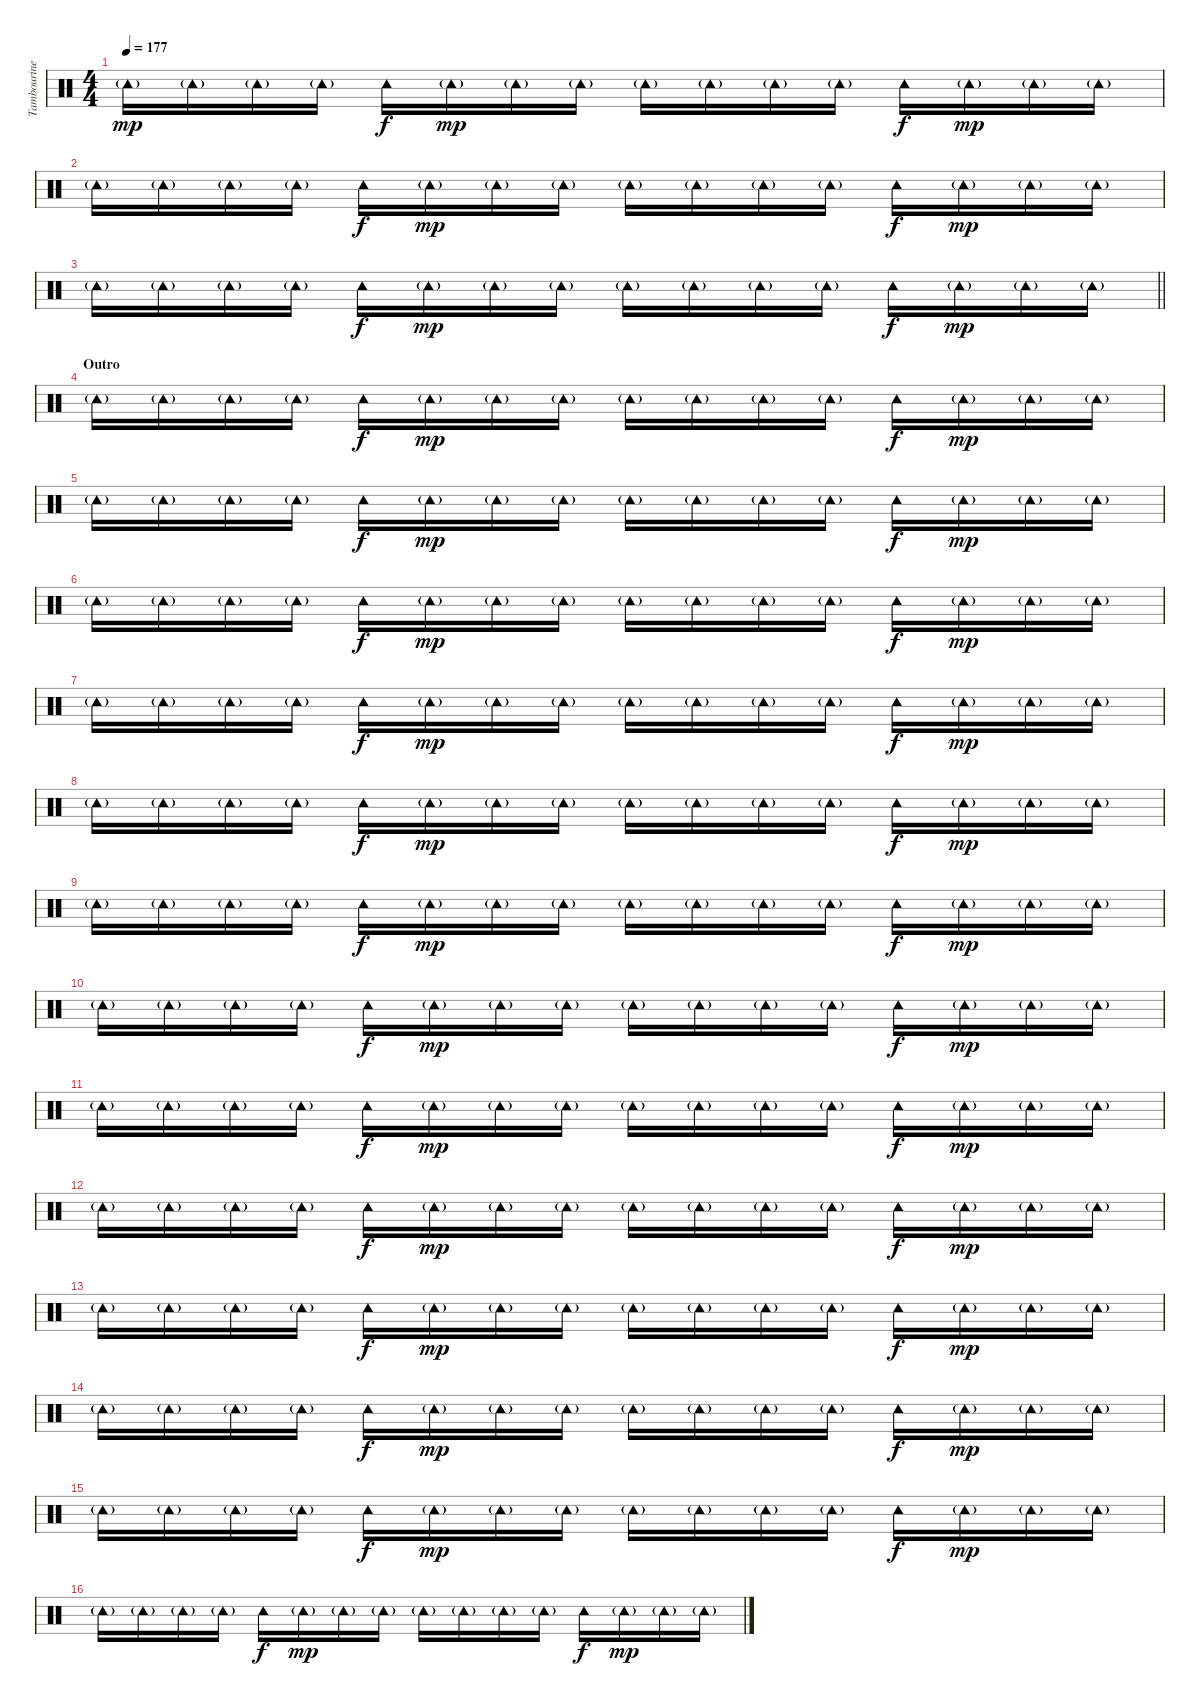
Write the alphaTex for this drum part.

\track ("Tambourine" "Tambourine") {instrument percussion}
\staff {score}
\articulation defaults
\ts (4 4)
\tempo 177
\clef neutral
\ks c "Tambourine (hit)"{g}.16{dy mp} "Tambourine (hit)"{g}.16 "Tambourine (hit)"{g}.16 "Tambourine (hit)"{g}.16 "Tambourine (hit)".16{dy f} "Tambourine (hit)"{g}.16{dy mp} "Tambourine (hit)"{g}.16 "Tambourine (hit)"{g}.16 "Tambourine (hit)"{g}.16 "Tambourine (hit)"{g}.16 "Tambourine (hit)"{g}.16 "Tambourine (hit)"{g}.16 "Tambourine (hit)".16{dy f} "Tambourine (hit)"{g}.16{dy mp} "Tambourine (hit)"{g}.16 "Tambourine (hit)"{g}.16
|
"Tambourine (hit)"{g}.16 "Tambourine (hit)"{g}.16 "Tambourine (hit)"{g}.16 "Tambourine (hit)"{g}.16 "Tambourine (hit)".16{dy f} "Tambourine (hit)"{g}.16{dy mp} "Tambourine (hit)"{g}.16 "Tambourine (hit)"{g}.16 "Tambourine (hit)"{g}.16 "Tambourine (hit)"{g}.16 "Tambourine (hit)"{g}.16 "Tambourine (hit)"{g}.16 "Tambourine (hit)".16{dy f} "Tambourine (hit)"{g}.16{dy mp} "Tambourine (hit)"{g}.16 "Tambourine (hit)"{g}.16 |
\barLineRight lightlight "Tambourine (hit)"{g}.16 "Tambourine (hit)"{g}.16 "Tambourine (hit)"{g}.16 "Tambourine (hit)"{g}.16 "Tambourine (hit)".16{dy f} "Tambourine (hit)"{g}.16{dy mp} "Tambourine (hit)"{g}.16 "Tambourine (hit)"{g}.16 "Tambourine (hit)"{g}.16 "Tambourine (hit)"{g}.16 "Tambourine (hit)"{g}.16 "Tambourine (hit)"{g}.16 "Tambourine (hit)".16{dy f} "Tambourine (hit)"{g}.16{dy mp} "Tambourine (hit)"{g}.16 "Tambourine (hit)"{g}.16
|
\section ("" "Outro")
"Tambourine (hit)"{g}.16 "Tambourine (hit)"{g}.16 "Tambourine (hit)"{g}.16 "Tambourine (hit)"{g}.16 "Tambourine (hit)".16{dy f} "Tambourine (hit)"{g}.16{dy mp} "Tambourine (hit)"{g}.16 "Tambourine (hit)"{g}.16 "Tambourine (hit)"{g}.16 "Tambourine (hit)"{g}.16 "Tambourine (hit)"{g}.16 "Tambourine (hit)"{g}.16 "Tambourine (hit)".16{dy f} "Tambourine (hit)"{g}.16{dy mp} "Tambourine (hit)"{g}.16 "Tambourine (hit)"{g}.16 |
"Tambourine (hit)"{g}.16 "Tambourine (hit)"{g}.16 "Tambourine (hit)"{g}.16 "Tambourine (hit)"{g}.16 "Tambourine (hit)".16{dy f} "Tambourine (hit)"{g}.16{dy mp} "Tambourine (hit)"{g}.16 "Tambourine (hit)"{g}.16 "Tambourine (hit)"{g}.16 "Tambourine (hit)"{g}.16 "Tambourine (hit)"{g}.16 "Tambourine (hit)"{g}.16 "Tambourine (hit)".16{dy f} "Tambourine (hit)"{g}.16{dy mp} "Tambourine (hit)"{g}.16 "Tambourine (hit)"{g}.16 |
"Tambourine (hit)"{g}.16 "Tambourine (hit)"{g}.16 "Tambourine (hit)"{g}.16 "Tambourine (hit)"{g}.16 "Tambourine (hit)".16{dy f} "Tambourine (hit)"{g}.16{dy mp} "Tambourine (hit)"{g}.16 "Tambourine (hit)"{g}.16 "Tambourine (hit)"{g}.16 "Tambourine (hit)"{g}.16 "Tambourine (hit)"{g}.16 "Tambourine (hit)"{g}.16 "Tambourine (hit)".16{dy f} "Tambourine (hit)"{g}.16{dy mp} "Tambourine (hit)"{g}.16 "Tambourine (hit)"{g}.16 |
"Tambourine (hit)"{g}.16 "Tambourine (hit)"{g}.16 "Tambourine (hit)"{g}.16 "Tambourine (hit)"{g}.16 "Tambourine (hit)".16{dy f} "Tambourine (hit)"{g}.16{dy mp} "Tambourine (hit)"{g}.16 "Tambourine (hit)"{g}.16 "Tambourine (hit)"{g}.16 "Tambourine (hit)"{g}.16 "Tambourine (hit)"{g}.16 "Tambourine (hit)"{g}.16 "Tambourine (hit)".16{dy f} "Tambourine (hit)"{g}.16{dy mp} "Tambourine (hit)"{g}.16 "Tambourine (hit)"{g}.16 |
"Tambourine (hit)"{g}.16 "Tambourine (hit)"{g}.16 "Tambourine (hit)"{g}.16 "Tambourine (hit)"{g}.16 "Tambourine (hit)".16{dy f} "Tambourine (hit)"{g}.16{dy mp} "Tambourine (hit)"{g}.16 "Tambourine (hit)"{g}.16 "Tambourine (hit)"{g}.16 "Tambourine (hit)"{g}.16 "Tambourine (hit)"{g}.16 "Tambourine (hit)"{g}.16 "Tambourine (hit)".16{dy f} "Tambourine (hit)"{g}.16{dy mp} "Tambourine (hit)"{g}.16 "Tambourine (hit)"{g}.16 |
"Tambourine (hit)"{g}.16 "Tambourine (hit)"{g}.16 "Tambourine (hit)"{g}.16 "Tambourine (hit)"{g}.16 "Tambourine (hit)".16{dy f} "Tambourine (hit)"{g}.16{dy mp} "Tambourine (hit)"{g}.16 "Tambourine (hit)"{g}.16 "Tambourine (hit)"{g}.16 "Tambourine (hit)"{g}.16 "Tambourine (hit)"{g}.16 "Tambourine (hit)"{g}.16 "Tambourine (hit)".16{dy f} "Tambourine (hit)"{g}.16{dy mp} "Tambourine (hit)"{g}.16 "Tambourine (hit)"{g}.16 |
"Tambourine (hit)"{g}.16 "Tambourine (hit)"{g}.16 "Tambourine (hit)"{g}.16 "Tambourine (hit)"{g}.16 "Tambourine (hit)".16{dy f} "Tambourine (hit)"{g}.16{dy mp} "Tambourine (hit)"{g}.16 "Tambourine (hit)"{g}.16 "Tambourine (hit)"{g}.16 "Tambourine (hit)"{g}.16 "Tambourine (hit)"{g}.16 "Tambourine (hit)"{g}.16 "Tambourine (hit)".16{dy f} "Tambourine (hit)"{g}.16{dy mp} "Tambourine (hit)"{g}.16 "Tambourine (hit)"{g}.16 |
"Tambourine (hit)"{g}.16 "Tambourine (hit)"{g}.16 "Tambourine (hit)"{g}.16 "Tambourine (hit)"{g}.16 "Tambourine (hit)".16{dy f} "Tambourine (hit)"{g}.16{dy mp} "Tambourine (hit)"{g}.16 "Tambourine (hit)"{g}.16 "Tambourine (hit)"{g}.16 "Tambourine (hit)"{g}.16 "Tambourine (hit)"{g}.16 "Tambourine (hit)"{g}.16 "Tambourine (hit)".16{dy f} "Tambourine (hit)"{g}.16{dy mp} "Tambourine (hit)"{g}.16 "Tambourine (hit)"{g}.16 |
"Tambourine (hit)"{g}.16 "Tambourine (hit)"{g}.16 "Tambourine (hit)"{g}.16 "Tambourine (hit)"{g}.16 "Tambourine (hit)".16{dy f} "Tambourine (hit)"{g}.16{dy mp} "Tambourine (hit)"{g}.16 "Tambourine (hit)"{g}.16 "Tambourine (hit)"{g}.16 "Tambourine (hit)"{g}.16 "Tambourine (hit)"{g}.16 "Tambourine (hit)"{g}.16 "Tambourine (hit)".16{dy f} "Tambourine (hit)"{g}.16{dy mp} "Tambourine (hit)"{g}.16 "Tambourine (hit)"{g}.16 |
"Tambourine (hit)"{g}.16 "Tambourine (hit)"{g}.16 "Tambourine (hit)"{g}.16 "Tambourine (hit)"{g}.16 "Tambourine (hit)".16{dy f} "Tambourine (hit)"{g}.16{dy mp} "Tambourine (hit)"{g}.16 "Tambourine (hit)"{g}.16 "Tambourine (hit)"{g}.16 "Tambourine (hit)"{g}.16 "Tambourine (hit)"{g}.16 "Tambourine (hit)"{g}.16 "Tambourine (hit)".16{dy f} "Tambourine (hit)"{g}.16{dy mp} "Tambourine (hit)"{g}.16 "Tambourine (hit)"{g}.16 |
"Tambourine (hit)"{g}.16 "Tambourine (hit)"{g}.16 "Tambourine (hit)"{g}.16 "Tambourine (hit)"{g}.16 "Tambourine (hit)".16{dy f} "Tambourine (hit)"{g}.16{dy mp} "Tambourine (hit)"{g}.16 "Tambourine (hit)"{g}.16 "Tambourine (hit)"{g}.16 "Tambourine (hit)"{g}.16 "Tambourine (hit)"{g}.16 "Tambourine (hit)"{g}.16 "Tambourine (hit)".16{dy f} "Tambourine (hit)"{g}.16{dy mp} "Tambourine (hit)"{g}.16 "Tambourine (hit)"{g}.16 |
"Tambourine (hit)"{g}.16 "Tambourine (hit)"{g}.16 "Tambourine (hit)"{g}.16 "Tambourine (hit)"{g}.16 "Tambourine (hit)".16{dy f} "Tambourine (hit)"{g}.16{dy mp} "Tambourine (hit)"{g}.16 "Tambourine (hit)"{g}.16 "Tambourine (hit)"{g}.16 "Tambourine (hit)"{g}.16 "Tambourine (hit)"{g}.16 "Tambourine (hit)"{g}.16 "Tambourine (hit)".16{dy f} "Tambourine (hit)"{g}.16{dy mp} "Tambourine (hit)"{g}.16 "Tambourine (hit)"{g}.16 |
"Tambourine (hit)"{g}.16 "Tambourine (hit)"{g}.16 "Tambourine (hit)"{g}.16 "Tambourine (hit)"{g}.16 "Tambourine (hit)".16{dy f} "Tambourine (hit)"{g}.16{dy mp} "Tambourine (hit)"{g}.16 "Tambourine (hit)"{g}.16 "Tambourine (hit)"{g}.16 "Tambourine (hit)"{g}.16 "Tambourine (hit)"{g}.16 "Tambourine (hit)"{g}.16 "Tambourine (hit)".16{dy f} "Tambourine (hit)"{g}.16{dy mp} "Tambourine (hit)"{g}.16 "Tambourine (hit)"{g}.16
